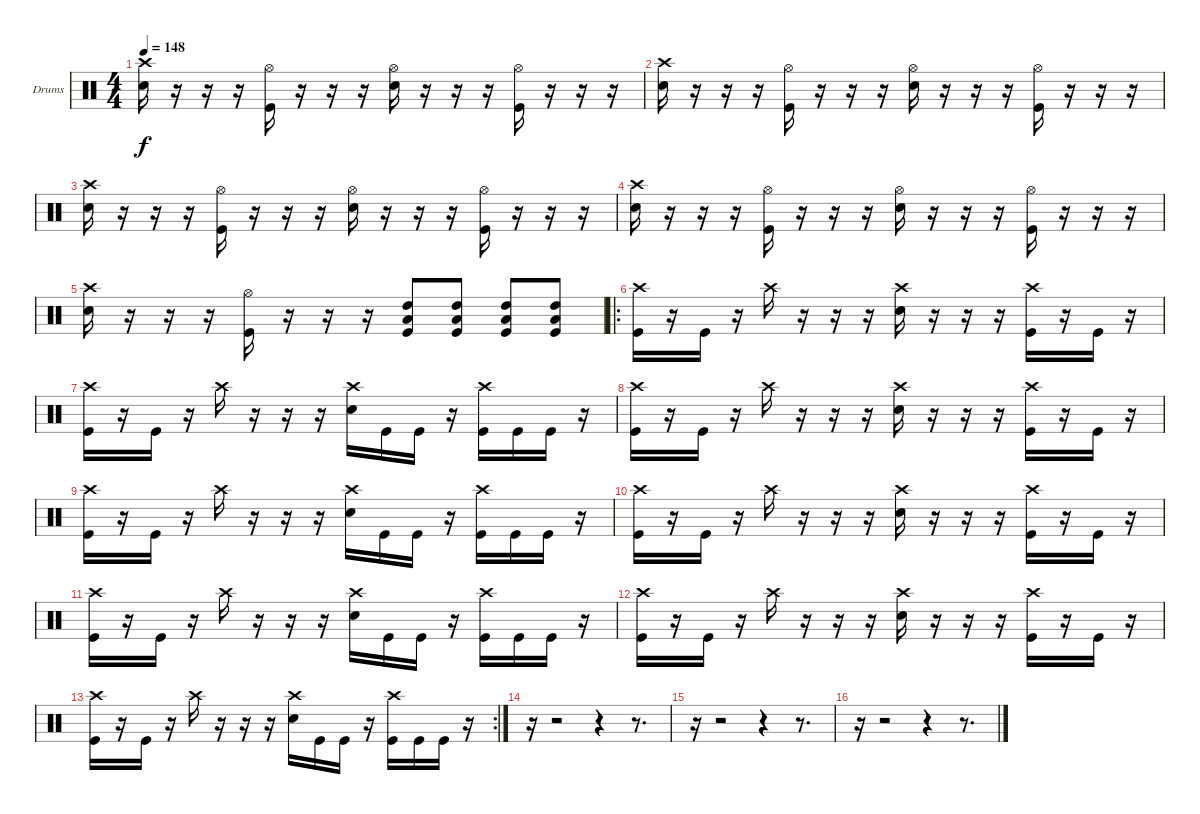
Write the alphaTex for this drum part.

\bracketExtendMode groupsimilarinstruments
\firstSystemTrackNameOrientation horizontal
\otherSystemsTrackNameOrientation horizontal
\track ("Drumkit" "Drums") {instrument percussion}
\staff {score}
\articulation defaults
\ts (4 4)
\tempo 148
\clef neutral
\ks c
("Crash high (hit)" "Snare (hit) 2").16{dy f} r.16 r.16 r.16 ("Hi-Hat (open)" "Kick (hit)").16 r.16 r.16 r.16 ("Hi-Hat (open)" "Snare (hit) 2").16 r.16 r.16 r.16 ("Hi-Hat (open)" "Kick (hit)").16 r.16 r.16 r.16 |
("Crash high (hit)" "Snare (hit) 2").16 r.16 r.16 r.16 ("Hi-Hat (open)" "Kick (hit)").16 r.16 r.16 r.16 ("Hi-Hat (open)" "Snare (hit) 2").16 r.16 r.16 r.16 ("Hi-Hat (open)" "Kick (hit)").16 r.16 r.16 r.16 |
("Crash high (hit)" "Snare (hit) 2").16 r.16 r.16 r.16 ("Hi-Hat (open)" "Kick (hit)").16 r.16 r.16 r.16 ("Hi-Hat (open)" "Snare (hit) 2").16 r.16 r.16 r.16 ("Hi-Hat (open)" "Kick (hit)").16 r.16 r.16 r.16 |
("Crash high (hit)" "Snare (hit) 2").16 r.16 r.16 r.16 ("Hi-Hat (open)" "Kick (hit)").16 r.16 r.16 r.16 ("Hi-Hat (open)" "Snare (hit) 2").16 r.16 r.16 r.16 ("Hi-Hat (open)" "Kick (hit)").16 r.16 r.16 r.16 |
("Crash high (hit)" "Snare (hit) 2").16 r.16 r.16 r.16 ("Hi-Hat (open)" "Kick (hit)").16 r.16 r.16 r.16 ("High Tom (hit)" "Low Tom (hit)" "Kick (hit)").8 ("High Tom (hit)" "Low Tom (hit)" "Kick (hit)").8 ("High Tom (hit)" "Low Tom (hit)" "Kick (hit)").8 ("High Tom (hit)" "Low Tom (hit)" "Kick (hit)").8 |
\ro
("Crash high (hit)" "Kick (hit)").16 r.16 "Kick (hit)".16 r.16 "Crash high (hit)".16 r.16 r.16 r.16 ("Snare (hit) 2" "Crash high (hit)").16 r.16 r.16 r.16 ("Kick (hit)" "Crash high (hit)").16 r.16 "Kick (hit)".16 r.16 |
("Crash high (hit)" "Kick (hit)").16 r.16 "Kick (hit)".16 r.16 "Crash high (hit)".16 r.16 r.16 r.16 ("Snare (hit) 2" "Crash high (hit)").16 "Kick (hit)".16 "Kick (hit)".16 r.16 ("Kick (hit)" "Crash high (hit)").16 "Kick (hit)".16 "Kick (hit)".16 r.16 |
("Crash high (hit)" "Kick (hit)").16 r.16 "Kick (hit)".16 r.16 "Crash high (hit)".16 r.16 r.16 r.16 ("Snare (hit) 2" "Crash high (hit)").16 r.16 r.16 r.16 ("Kick (hit)" "Crash high (hit)").16 r.16 "Kick (hit)".16 r.16 |
("Crash high (hit)" "Kick (hit)").16 r.16 "Kick (hit)".16 r.16 "Crash high (hit)".16 r.16 r.16 r.16 ("Snare (hit) 2" "Crash high (hit)").16 "Kick (hit)".16 "Kick (hit)".16 r.16 ("Kick (hit)" "Crash high (hit)").16 "Kick (hit)".16 "Kick (hit)".16 r.16 |
("Crash high (hit)" "Kick (hit)").16 r.16 "Kick (hit)".16 r.16 "Crash high (hit)".16 r.16 r.16 r.16 ("Snare (hit) 2" "Crash high (hit)").16 r.16 r.16 r.16 ("Kick (hit)" "Crash high (hit)").16 r.16 "Kick (hit)".16 r.16 |
("Crash high (hit)" "Kick (hit)").16 r.16 "Kick (hit)".16 r.16 "Crash high (hit)".16 r.16 r.16 r.16 ("Snare (hit) 2" "Crash high (hit)").16 "Kick (hit)".16 "Kick (hit)".16 r.16 ("Kick (hit)" "Crash high (hit)").16 "Kick (hit)".16 "Kick (hit)".16 r.16 |
("Crash high (hit)" "Kick (hit)").16 r.16 "Kick (hit)".16 r.16 "Crash high (hit)".16 r.16 r.16 r.16 ("Snare (hit) 2" "Crash high (hit)").16 r.16 r.16 r.16 ("Kick (hit)" "Crash high (hit)").16 r.16 "Kick (hit)".16 r.16 |
\rc 2
("Crash high (hit)" "Kick (hit)").16 r.16 "Kick (hit)".16 r.16 "Crash high (hit)".16 r.16 r.16 r.16 ("Snare (hit) 2" "Crash high (hit)").16 "Kick (hit)".16 "Kick (hit)".16 r.16 ("Kick (hit)" "Crash high (hit)").16 "Kick (hit)".16 "Kick (hit)".16 r.16 |
r.16 r.2 r.4 r.8{d} |
r.16 r.2 r.4 r.8{d} |
r.16 r.2 r.4 r.8{d}
